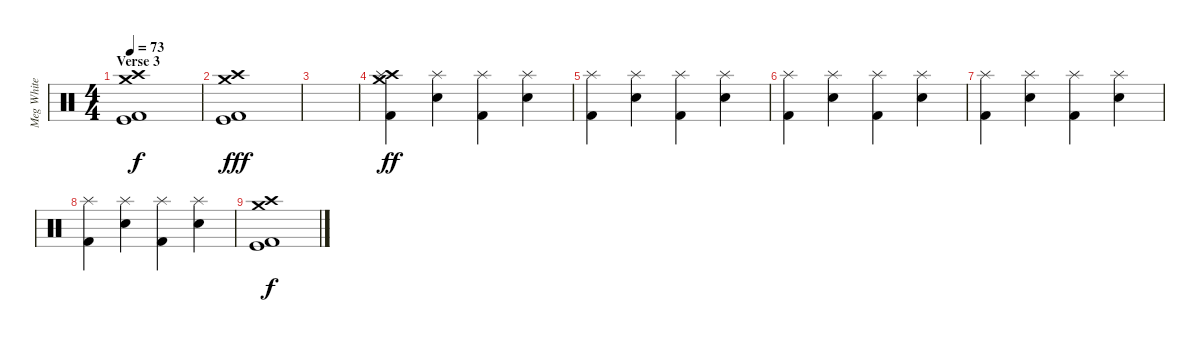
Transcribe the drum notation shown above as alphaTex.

\track ("Meg White" "Meg White") {instrument percussion}
\staff {score}
\articulation defaults
\ts (4 4)
\section ("" "Verse 3")
\tempo 73
\clef neutral
\ks c
("Crash high (hit)" "Crash medium (hit)" "Kick (hit) 2" "Kick (hit)").1{dy f} |
("Crash high (hit)" "Crash medium (hit)" "Kick (hit) 2" "Kick (hit)").1{dy fff} |
|
("Crash high (hit)" "Crash medium (hit)" "Kick (hit) 2" "Splash (hit)").4{dy ff} ("Snare (hit) 2" "Splash (hit)").4 ("Kick (hit) 2" "Splash (hit)").4 ("Snare (hit) 2" "Splash (hit)").4 |
("Kick (hit) 2" "Splash (hit)").4 ("Snare (hit) 2" "Splash (hit)").4 ("Kick (hit) 2" "Splash (hit)").4 ("Snare (hit) 2" "Splash (hit)").4 |
("Kick (hit) 2" "Splash (hit)").4 ("Snare (hit) 2" "Splash (hit)").4 ("Kick (hit) 2" "Splash (hit)").4 ("Snare (hit) 2" "Splash (hit)").4 |
("Kick (hit) 2" "Splash (hit)").4 ("Snare (hit) 2" "Splash (hit)").4 ("Kick (hit) 2" "Splash (hit)").4 ("Snare (hit) 2" "Splash (hit)").4 |
("Kick (hit) 2" "Splash (hit)").4 ("Snare (hit) 2" "Splash (hit)").4 ("Kick (hit) 2" "Splash (hit)").4 ("Snare (hit) 2" "Splash (hit)").4 |
("Crash high (hit)" "Crash medium (hit)" "Kick (hit) 2" "Kick (hit)").1{dy f}
